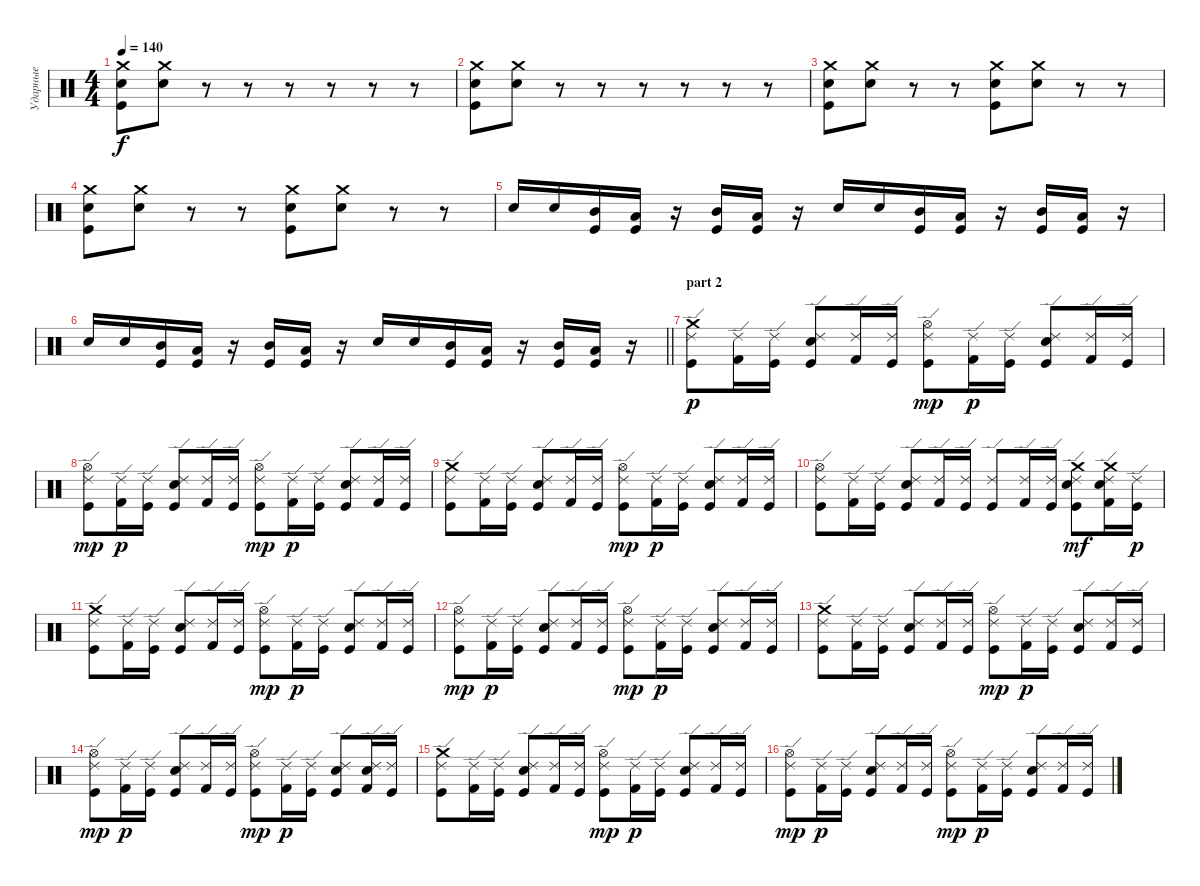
\track ("Ударные" "Ударные") {instrument percussion}
\staff {score}
\articulation defaults
\ts (4 4)
\tempo 140
\clef neutral
\ks c
("Crash medium (hit)" "Electric Snare (hit)" "Kick (hit)").8{dy f} ("Crash medium (hit)" "Electric Snare (hit)").8 r.8 r.8 r.8 r.8 r.8 r.8 |
("Crash medium (hit)" "Electric Snare (hit)" "Kick (hit)").8 ("Crash medium (hit)" "Electric Snare (hit)").8 r.8 r.8 r.8 r.8 r.8 r.8 |
("Crash medium (hit)" "Electric Snare (hit)" "Kick (hit)").8 ("Crash medium (hit)" "Electric Snare (hit)").8 r.8 r.8 ("Crash medium (hit)" "Electric Snare (hit)" "Kick (hit)").8 ("Crash medium (hit)" "Electric Snare (hit)").8 r.8 r.8 |
("Crash medium (hit)" "Electric Snare (hit)" "Kick (hit)").8 ("Crash medium (hit)" "Electric Snare (hit)").8 r.8 r.8 ("Crash medium (hit)" "Electric Snare (hit)" "Kick (hit)").8 ("Crash medium (hit)" "Electric Snare (hit)").8 r.8 r.8 |
"Electric Snare (hit)".16 "Electric Snare (hit)".16 ("Mid Tom (hit)" "Kick (hit)").16 ("Low Tom (hit)" "Kick (hit)").16 r.16 ("Mid Tom (hit)" "Kick (hit)").16 ("Low Tom (hit)" "Kick (hit)").16 r.16 "Electric Snare (hit)".16 "Electric Snare (hit)".16 ("Mid Tom (hit)" "Kick (hit)").16 ("Low Tom (hit)" "Kick (hit)").16 r.16 ("Mid Tom (hit)" "Kick (hit)").16 ("Low Tom (hit)" "Kick (hit)").16 r.16 |
\barLineRight lightlight "Electric Snare (hit)".16 "Electric Snare (hit)".16
("Mid Tom (hit)" "Kick (hit)").16 ("Low Tom (hit)" "Kick (hit)").16 r.16 ("Mid Tom (hit)" "Kick (hit)").16 ("Low Tom (hit)" "Kick (hit)").16 r.16 "Electric Snare (hit)".16 "Electric Snare (hit)".16 ("Mid Tom (hit)" "Kick (hit)").16 ("Low Tom (hit)" "Kick (hit)").16 r.16 ("Mid Tom (hit)" "Kick (hit)").16 ("Low Tom (hit)" "Kick (hit)").16 r.16 |
\section ("" "part 2")
("Ride (edge) 2" "Crash medium (hit)" "Kick (hit)").8{dy p} ("Ride (edge) 2" "Kick (hit) 2").16 ("Ride (edge) 2" "Kick (hit)").16 ("Ride (edge) 2" "Electric Snare (hit)" "Kick (hit)").8 ("Ride (edge) 2" "Kick (hit) 2").16 ("Ride (edge) 2" "Kick (hit)").16 ("Ride (edge) 2" "Hi-Hat (open)" "Kick (hit)").8{dy mp} ("Ride (edge) 2" "Kick (hit) 2").16{dy p} ("Ride (edge) 2" "Kick (hit)").16 ("Ride (edge) 2" "Electric Snare (hit)" "Kick (hit)").8 ("Ride (edge) 2" "Kick (hit) 2").16 ("Ride (edge) 2" "Kick (hit)").16 |
("Ride (edge) 2" "Hi-Hat (open)" "Kick (hit)").8{dy mp} ("Ride (edge) 2" "Kick (hit) 2").16{dy p} ("Ride (edge) 2" "Kick (hit)").16 ("Ride (edge) 2" "Electric Snare (hit)" "Kick (hit)").8 ("Ride (edge) 2" "Kick (hit) 2").16 ("Ride (edge) 2" "Kick (hit)").16 ("Ride (edge) 2" "Hi-Hat (open)" "Kick (hit)").8{dy mp} ("Ride (edge) 2" "Kick (hit) 2").16{dy p} ("Ride (edge) 2" "Kick (hit)").16 ("Ride (edge) 2" "Electric Snare (hit)" "Kick (hit)").8 ("Ride (edge) 2" "Kick (hit) 2").16 ("Ride (edge) 2" "Kick (hit)").16 |
("Ride (edge) 2" "Crash medium (hit)" "Kick (hit)").8 ("Ride (edge) 2" "Kick (hit) 2").16 ("Ride (edge) 2" "Kick (hit)").16 ("Ride (edge) 2" "Electric Snare (hit)" "Kick (hit)").8 ("Ride (edge) 2" "Kick (hit) 2").16 ("Ride (edge) 2" "Kick (hit)").16 ("Ride (edge) 2" "Hi-Hat (open)" "Kick (hit)").8{dy mp} ("Ride (edge) 2" "Kick (hit) 2").16{dy p} ("Ride (edge) 2" "Kick (hit)").16 ("Ride (edge) 2" "Electric Snare (hit)" "Kick (hit)").8 ("Ride (edge) 2" "Kick (hit) 2").16 ("Ride (edge) 2" "Kick (hit)").16 |
("Ride (edge) 2" "Hi-Hat (open)" "Kick (hit)").8 ("Ride (edge) 2" "Kick (hit) 2").16 ("Ride (edge) 2" "Kick (hit)").16 ("Ride (edge) 2" "Electric Snare (hit)" "Kick (hit)").8 ("Ride (edge) 2" "Kick (hit) 2").16 ("Ride (edge) 2" "Kick (hit)").16 ("Ride (edge) 2" "Kick (hit)").8 ("Ride (edge) 2" "Kick (hit) 2").16 ("Ride (edge) 2" "Kick (hit)").16 ("Ride (edge) 2" "Crash medium (hit)" "Electric Snare (hit)" "Kick (hit)").8{dy mf} ("Ride (edge) 2" "Crash medium (hit)" "Electric Snare (hit)" "Kick (hit) 2").16 ("Ride (edge) 2" "Kick (hit)").16{dy p} |
("Ride (edge) 2" "Crash medium (hit)" "Kick (hit)").8 ("Ride (edge) 2" "Kick (hit) 2").16 ("Ride (edge) 2" "Kick (hit)").16 ("Ride (edge) 2" "Electric Snare (hit)" "Kick (hit)").8 ("Ride (edge) 2" "Kick (hit) 2").16 ("Ride (edge) 2" "Kick (hit)").16 ("Ride (edge) 2" "Hi-Hat (open)" "Kick (hit)").8{dy mp} ("Ride (edge) 2" "Kick (hit) 2").16{dy p} ("Ride (edge) 2" "Kick (hit)").16 ("Ride (edge) 2" "Electric Snare (hit)" "Kick (hit)").8 ("Ride (edge) 2" "Kick (hit) 2").16 ("Ride (edge) 2" "Kick (hit)").16 |
("Ride (edge) 2" "Hi-Hat (open)" "Kick (hit)").8{dy mp} ("Ride (edge) 2" "Kick (hit) 2").16{dy p} ("Ride (edge) 2" "Kick (hit)").16 ("Ride (edge) 2" "Electric Snare (hit)" "Kick (hit)").8 ("Ride (edge) 2" "Kick (hit) 2").16 ("Ride (edge) 2" "Kick (hit)").16 ("Ride (edge) 2" "Hi-Hat (open)" "Kick (hit)").8{dy mp} ("Ride (edge) 2" "Kick (hit) 2").16{dy p} ("Ride (edge) 2" "Kick (hit)").16 ("Ride (edge) 2" "Electric Snare (hit)" "Kick (hit)").8 ("Ride (edge) 2" "Kick (hit) 2").16 ("Ride (edge) 2" "Kick (hit)").16 |
("Ride (edge) 2" "Crash medium (hit)" "Kick (hit)").8 ("Ride (edge) 2" "Kick (hit) 2").16 ("Ride (edge) 2" "Kick (hit)").16 ("Ride (edge) 2" "Electric Snare (hit)" "Kick (hit)").8 ("Ride (edge) 2" "Kick (hit) 2").16 ("Ride (edge) 2" "Kick (hit)").16 ("Ride (edge) 2" "Hi-Hat (open)" "Kick (hit)").8{dy mp} ("Ride (edge) 2" "Kick (hit) 2").16{dy p} ("Ride (edge) 2" "Kick (hit)").16 ("Ride (edge) 2" "Electric Snare (hit)" "Kick (hit)").8 ("Ride (edge) 2" "Kick (hit) 2").16 ("Ride (edge) 2" "Kick (hit)").16 |
("Ride (edge) 2" "Hi-Hat (open)" "Kick (hit)").8{dy mp} ("Ride (edge) 2" "Kick (hit) 2").16{dy p} ("Ride (edge) 2" "Kick (hit)").16 ("Ride (edge) 2" "Electric Snare (hit)" "Kick (hit)").8 ("Ride (edge) 2" "Kick (hit) 2").16 ("Ride (edge) 2" "Kick (hit)").16 ("Ride (edge) 2" "Hi-Hat (open)" "Kick (hit)").8{dy mp} ("Ride (edge) 2" "Kick (hit) 2").16{dy p} ("Ride (edge) 2" "Kick (hit)").16 ("Ride (edge) 2" "Electric Snare (hit)" "Kick (hit)").8 ("Ride (edge) 2" "Electric Snare (hit)" "Kick (hit) 2").16 ("Ride (edge) 2" "Kick (hit)").16 |
("Ride (edge) 2" "Crash medium (hit)" "Kick (hit)").8 ("Ride (edge) 2" "Kick (hit) 2").16 ("Ride (edge) 2" "Kick (hit)").16 ("Ride (edge) 2" "Electric Snare (hit)" "Kick (hit)").8 ("Ride (edge) 2" "Kick (hit) 2").16 ("Ride (edge) 2" "Kick (hit)").16 ("Ride (edge) 2" "Hi-Hat (open)" "Kick (hit)").8{dy mp} ("Ride (edge) 2" "Kick (hit) 2").16{dy p} ("Ride (edge) 2" "Kick (hit)").16 ("Ride (edge) 2" "Electric Snare (hit)" "Kick (hit)").8 ("Ride (edge) 2" "Kick (hit) 2").16 ("Ride (edge) 2" "Kick (hit)").16 |
("Ride (edge) 2" "Hi-Hat (open)" "Kick (hit)").8{dy mp} ("Ride (edge) 2" "Kick (hit) 2").16{dy p} ("Ride (edge) 2" "Kick (hit)").16 ("Ride (edge) 2" "Electric Snare (hit)" "Kick (hit)").8 ("Ride (edge) 2" "Kick (hit) 2").16 ("Ride (edge) 2" "Kick (hit)").16 ("Ride (edge) 2" "Hi-Hat (open)" "Kick (hit)").8{dy mp} ("Ride (edge) 2" "Kick (hit) 2").16{dy p} ("Ride (edge) 2" "Kick (hit)").16 ("Ride (edge) 2" "Electric Snare (hit)" "Kick (hit)").8 ("Ride (edge) 2" "Kick (hit) 2").16 ("Ride (edge) 2" "Kick (hit)").16
